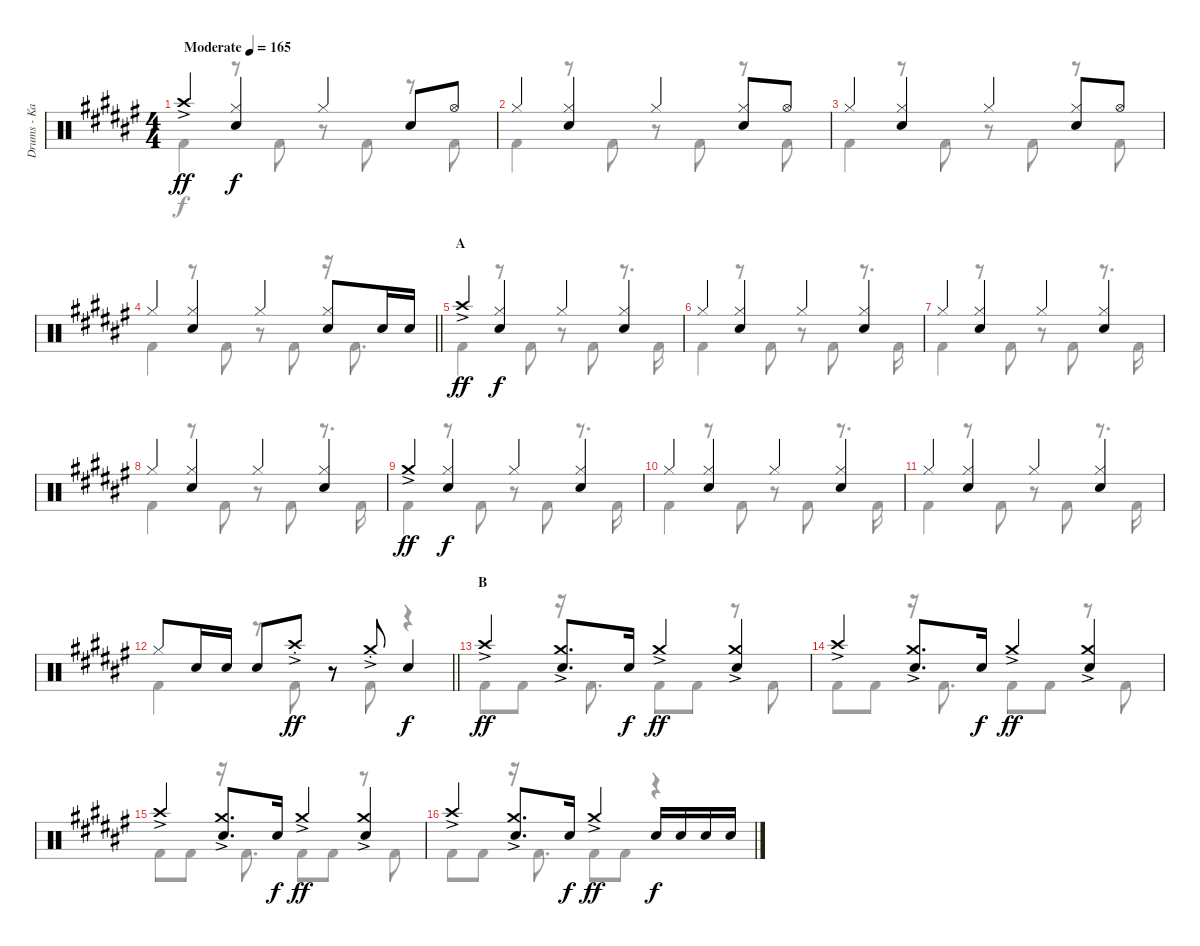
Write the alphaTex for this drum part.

\track ("Drums - Kai" "Drums - Ka") {instrument percussion}
\staff {score}
\articulation defaults
\voice
\ts (4 4)
\tempo (165 "Moderate")
\clef neutral
\ks f# "Crash high (hit)"{ac}.4{dy ff}
("Hi-Hat (closed)" "Electric Snare (hit)").4{dy f} "Hi-Hat (closed)".4 "Electric Snare (hit)".8 "Hi-Hat (open)".8 |
"Hi-Hat (closed)".4 ("Hi-Hat (closed)" "Electric Snare (hit)").4 "Hi-Hat (closed)".4 ("Hi-Hat (closed)" "Electric Snare (hit)").8 "Hi-Hat (open)".8 |
"Hi-Hat (closed)".4 ("Hi-Hat (closed)" "Electric Snare (hit)").4 "Hi-Hat (closed)".4 ("Hi-Hat (closed)" "Electric Snare (hit)").8 "Hi-Hat (open)".8 |
\barLineRight lightlight "Hi-Hat (closed)".4
("Hi-Hat (closed)" "Electric Snare (hit)").4 "Hi-Hat (closed)".4 ("Hi-Hat (closed)" "Electric Snare (hit)").8 "Electric Snare (hit)".16 "Electric Snare (hit)".16 |
\section ("" "A")
"Crash high (hit)"{ac}.4{dy ff} ("Hi-Hat (closed)" "Electric Snare (hit)").4{dy f} "Hi-Hat (closed)".4 ("Hi-Hat (closed)" "Electric Snare (hit)").4 |
"Hi-Hat (closed)".4 ("Hi-Hat (closed)" "Electric Snare (hit)").4 "Hi-Hat (closed)".4 ("Hi-Hat (closed)" "Electric Snare (hit)").4 |
"Hi-Hat (closed)".4 ("Hi-Hat (closed)" "Electric Snare (hit)").4 "Hi-Hat (closed)".4 ("Hi-Hat (closed)" "Electric Snare (hit)").4 |
"Hi-Hat (closed)".4 ("Hi-Hat (closed)" "Electric Snare (hit)").4 "Hi-Hat (closed)".4 ("Hi-Hat (closed)" "Electric Snare (hit)").4 |
"Crash medium (hit)"{ac}.4{dy ff} ("Hi-Hat (closed)" "Electric Snare (hit)").4{dy f} "Hi-Hat (closed)".4 ("Hi-Hat (closed)" "Electric Snare (hit)").4 |
"Hi-Hat (closed)".4 ("Hi-Hat (closed)" "Electric Snare (hit)").4 "Hi-Hat (closed)".4 ("Hi-Hat (closed)" "Electric Snare (hit)").4 |
"Hi-Hat (closed)".4 ("Hi-Hat (closed)" "Electric Snare (hit)").4 "Hi-Hat (closed)".4 ("Hi-Hat (closed)" "Electric Snare (hit)").4 |
\barLineRight lightlight "Hi-Hat (closed)".8 "Electric Snare (hit)".16 "Electric Snare (hit)".16 "Electric Snare (hit)".8 "Crash high (hit)"{ac st}.8{dy ff}
r.8 "Crash medium (hit)"{ac st}.8 "Electric Snare (hit)".4{dy f} |
\section ("" "B")
"Crash high (hit)"{ac}.4{dy ff} ("Crash medium (hit)"{ac} "Electric Snare (hit)").8{d} "Electric Snare (hit)".16{dy f} "Crash medium (hit)"{ac}.4{dy ff} ("Crash medium (hit)"{ac} "Electric Snare (hit)").4 |
"Crash high (hit)"{ac}.4 ("Crash medium (hit)"{ac} "Electric Snare (hit)").8{d} "Electric Snare (hit)".16{dy f} "Crash medium (hit)"{ac}.4{dy ff} ("Crash medium (hit)"{ac} "Electric Snare (hit)").4 |
"Crash high (hit)"{ac}.4 ("Crash medium (hit)"{ac} "Electric Snare (hit)").8{d} "Electric Snare (hit)".16{dy f} "Crash medium (hit)"{ac}.4{dy ff} ("Crash medium (hit)"{ac} "Electric Snare (hit)").4 |
"Crash high (hit)"{ac}.4 ("Crash medium (hit)"{ac} "Electric Snare (hit)").8{d} "Electric Snare (hit)".16{dy f} "Crash medium (hit)"{ac}.4{dy ff} "Electric Snare (hit)".16{dy f} "Electric Snare (hit)".16 "Electric Snare (hit)".16 "Electric Snare (hit)".16
\voice
\clef neutral
\ottava regular
\simile none
\ks f# "Kick (hit) 2".4{dy f}
r.8 "Kick (hit) 2".8 r.8 "Kick (hit) 2".8 r.8 "Kick (hit) 2".8 |
"Kick (hit) 2".4 r.8 "Kick (hit) 2".8 r.8 "Kick (hit) 2".8 r.8 "Kick (hit) 2".8 |
"Kick (hit) 2".4 r.8 "Kick (hit) 2".8 r.8 "Kick (hit) 2".8 r.8 "Kick (hit) 2".8 |
\barLineRight lightlight "Kick (hit) 2".4
r.8 "Kick (hit) 2".8 r.8 "Kick (hit) 2".8 r.16 "Kick (hit) 2".8{d} |
"Kick (hit) 2".4 r.8 "Kick (hit) 2".8 r.8 "Kick (hit) 2".8 r.8{d} "Kick (hit) 2".16 |
"Kick (hit) 2".4 r.8 "Kick (hit) 2".8 r.8 "Kick (hit) 2".8 r.8{d} "Kick (hit) 2".16 |
"Kick (hit) 2".4 r.8 "Kick (hit) 2".8 r.8 "Kick (hit) 2".8 r.8{d} "Kick (hit) 2".16 |
"Kick (hit) 2".4 r.8 "Kick (hit) 2".8 r.8 "Kick (hit) 2".8 r.8{d} "Kick (hit) 2".16 |
"Kick (hit) 2".4 r.8 "Kick (hit) 2".8 r.8 "Kick (hit) 2".8 r.8{d} "Kick (hit) 2".16 |
"Kick (hit) 2".4 r.8 "Kick (hit) 2".8 r.8 "Kick (hit) 2".8 r.8{d} "Kick (hit) 2".16 |
"Kick (hit) 2".4 r.8 "Kick (hit) 2".8 r.8 "Kick (hit) 2".8 r.8{d} "Kick (hit) 2".16 |
\barLineRight lightlight "Kick (hit) 2".4
r.8 "Kick (hit) 2".8 r.8 "Kick (hit) 2".8 r.4 |
"Kick (hit) 2".8 "Kick (hit) 2".8 r.16 "Kick (hit) 2".8{d} "Kick (hit) 2".8 "Kick (hit) 2".8 r.8 "Kick (hit) 2".8 |
"Kick (hit) 2".8 "Kick (hit) 2".8 r.16 "Kick (hit) 2".8{d} "Kick (hit) 2".8 "Kick (hit) 2".8 r.8 "Kick (hit) 2".8 |
"Kick (hit) 2".8 "Kick (hit) 2".8 r.16 "Kick (hit) 2".8{d} "Kick (hit) 2".8 "Kick (hit) 2".8 r.8 "Kick (hit) 2".8 |
"Kick (hit) 2".8 "Kick (hit) 2".8 r.16 "Kick (hit) 2".8{d} "Kick (hit) 2".8 "Kick (hit) 2".8 r.4
